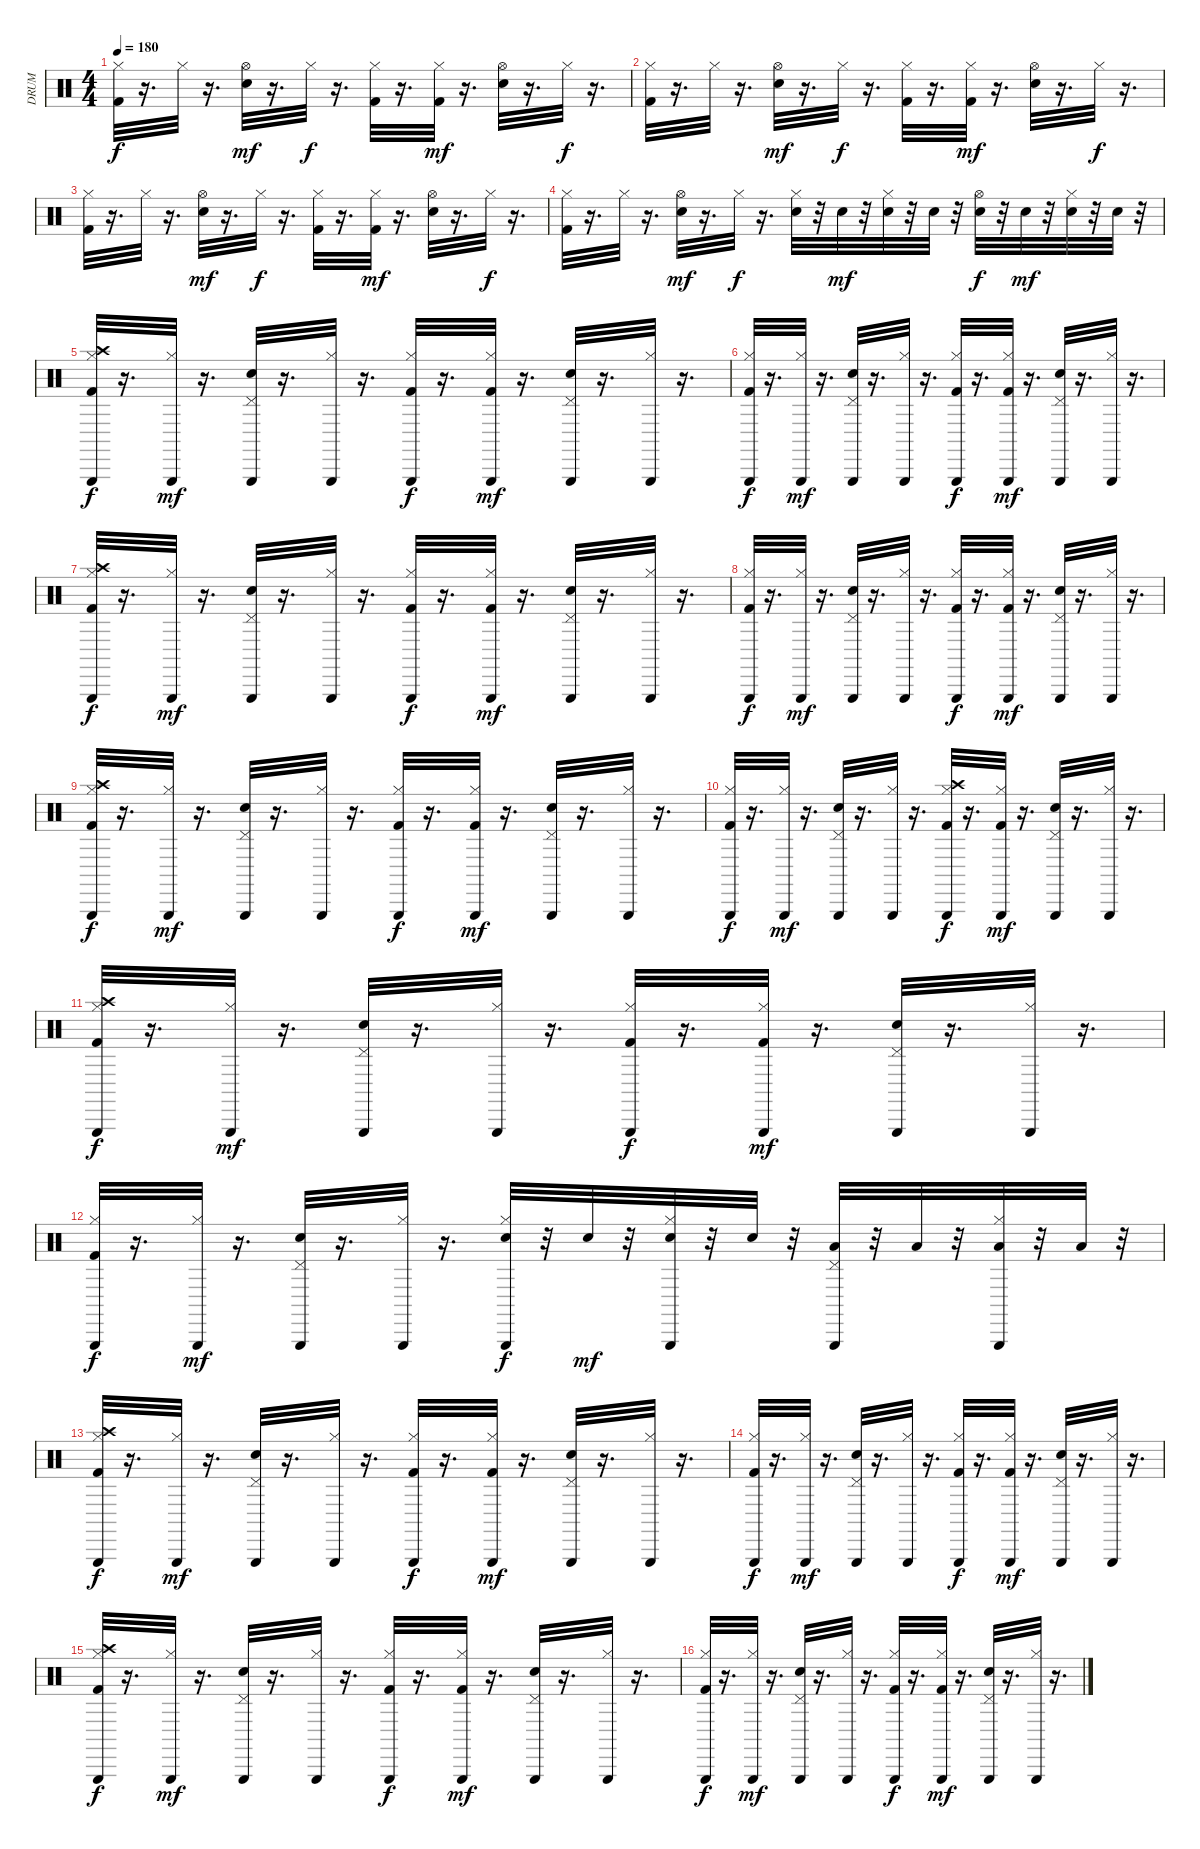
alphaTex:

\track ("DRUM" "DRUM") {instrument percussion}
\staff {score}
\articulation defaults
\ts (4 4)
\tempo 180
\clef neutral
\ks c
("Hi-Hat (closed)" "Kick (hit) 2").32{dy f} r.16{d} "Hi-Hat (closed)".32 r.16{d} ("Snare (hit) 2" "Hi-Hat (open)").32{dy mf} r.16{d} "Hi-Hat (closed)".32{dy f} r.16{d} ("Hi-Hat (closed)" "Kick (hit) 2").32 r.16{d} ("Hi-Hat (closed)" "Kick (hit) 2").32{dy mf} r.16{d} ("Snare (hit) 2" "Hi-Hat (open)").32 r.16{d} "Hi-Hat (closed)".32{dy f} r.16{d} |
("Hi-Hat (closed)" "Kick (hit) 2").32 r.16{d} "Hi-Hat (closed)".32 r.16{d} ("Snare (hit) 2" "Hi-Hat (open)").32{dy mf} r.16{d} "Hi-Hat (closed)".32{dy f} r.16{d} ("Hi-Hat (closed)" "Kick (hit) 2").32 r.16{d} ("Hi-Hat (closed)" "Kick (hit) 2").32{dy mf} r.16{d} ("Hi-Hat (open)" "Snare (hit) 2").32 r.16{d} "Hi-Hat (closed)".32{dy f} r.16{d} |
("Hi-Hat (closed)" "Kick (hit) 2").32 r.16{d} "Hi-Hat (closed)".32 r.16{d} ("Hi-Hat (open)" "Snare (hit) 2").32{dy mf} r.16{d} "Hi-Hat (closed)".32{dy f} r.16{d} ("Kick (hit) 2" "Hi-Hat (closed)").32 r.16{d} ("Kick (hit) 2" "Hi-Hat (closed)").32{dy mf} r.16{d} ("Snare (hit) 2" "Hi-Hat (open)").32 r.16{d} "Hi-Hat (closed)".32{dy f} r.16{d} |
("Kick (hit) 2" "Hi-Hat (closed)").32 r.16{d} "Hi-Hat (closed)".32 r.16{d} ("Hi-Hat (open)" "Snare (hit) 2").32{dy mf} r.16{d} "Hi-Hat (closed)".32{dy f} r.16{d} ("Electric Snare (hit)" "Hi-Hat (closed)").32 r.32 "Electric Snare (hit)".32{dy mf} r.32 ("Electric Snare (hit)" "Hi-Hat (closed)").32 r.32 "Electric Snare (hit)".32 r.32 ("Hi-Hat (open)" "Snare (hit) 2").32{dy f} r.32 "Snare (hit) 2".32{dy mf} r.32 ("Hi-Hat (closed)" "Snare (hit) 2").32 r.32 "Snare (hit) 2".32 r.32 |
("Kick (hit) 2" "Crash high (hit)" "Hi-Hat (closed)" "Triangle (hit)").32{dy f} r.16{d} ("Triangle (hit)" "Hi-Hat (closed)").32{dy mf} r.16{d} ("Triangle (hit)" "Snare (hit) 2" "Pedal Hi-Hat (hit)").32 r.16{d} ("Triangle (hit)" "Hi-Hat (closed)").32 r.16{d} ("Triangle (hit)" "Hi-Hat (closed)" "Kick (hit) 2").32{dy f} r.16{d} ("Triangle (hit)" "Kick (hit) 2" "Hi-Hat (closed)").32{dy mf} r.16{d} ("Snare (hit) 2" "Triangle (hit)" "Pedal Hi-Hat (hit)").32 r.16{d} ("Hi-Hat (closed)" "Triangle (hit)").32 r.16{d} |
("Hi-Hat (closed)" "Kick (hit) 2" "Triangle (hit)").32{dy f} r.16{d} ("Hi-Hat (closed)" "Triangle (hit)").32{dy mf} r.16{d} ("Pedal Hi-Hat (hit)" "Snare (hit) 2" "Triangle (hit)").32 r.16{d} ("Hi-Hat (closed)" "Triangle (hit)").32 r.16{d} ("Hi-Hat (closed)" "Kick (hit) 2" "Triangle (hit)").32{dy f} r.16{d} ("Hi-Hat (closed)" "Triangle (hit)" "Kick (hit) 2").32{dy mf} r.16{d} ("Pedal Hi-Hat (hit)" "Triangle (hit)" "Snare (hit) 2").32 r.16{d} ("Hi-Hat (closed)" "Triangle (hit)").32 r.16{d} |
("Kick (hit) 2" "Triangle (hit)" "Hi-Hat (closed)" "Crash high (hit)").32{dy f} r.16{d} ("Triangle (hit)" "Hi-Hat (closed)").32{dy mf} r.16{d} ("Pedal Hi-Hat (hit)" "Triangle (hit)" "Snare (hit) 2").32 r.16{d} ("Triangle (hit)" "Hi-Hat (closed)").32 r.16{d} ("Hi-Hat (closed)" "Kick (hit) 2" "Triangle (hit)").32{dy f} r.16{d} ("Hi-Hat (closed)" "Kick (hit) 2" "Triangle (hit)").32{dy mf} r.16{d} ("Snare (hit) 2" "Triangle (hit)" "Pedal Hi-Hat (hit)").32 r.16{d} ("Triangle (hit)" "Hi-Hat (closed)").32 r.16{d} |
("Hi-Hat (closed)" "Triangle (hit)" "Kick (hit) 2").32{dy f} r.16{d} ("Triangle (hit)" "Hi-Hat (closed)").32{dy mf} r.16{d} ("Triangle (hit)" "Snare (hit) 2" "Pedal Hi-Hat (hit)").32 r.16{d} ("Hi-Hat (closed)" "Triangle (hit)").32 r.16{d} ("Kick (hit) 2" "Hi-Hat (closed)" "Triangle (hit)").32{dy f} r.16{d} ("Hi-Hat (closed)" "Triangle (hit)" "Kick (hit) 2").32{dy mf} r.16{d} ("Triangle (hit)" "Pedal Hi-Hat (hit)" "Snare (hit) 2").32 r.16{d} ("Hi-Hat (closed)" "Triangle (hit)").32 r.16{d} |
("Hi-Hat (closed)" "Crash high (hit)" "Kick (hit) 2" "Triangle (hit)").32{dy f} r.16{d} ("Triangle (hit)" "Hi-Hat (closed)").32{dy mf} r.16{d} ("Triangle (hit)" "Pedal Hi-Hat (hit)" "Snare (hit) 2").32 r.16{d} ("Triangle (hit)" "Hi-Hat (closed)").32 r.16{d} ("Kick (hit) 2" "Triangle (hit)" "Hi-Hat (closed)").32{dy f} r.16{d} ("Kick (hit) 2" "Hi-Hat (closed)" "Triangle (hit)").32{dy mf} r.16{d} ("Pedal Hi-Hat (hit)" "Snare (hit) 2" "Triangle (hit)").32 r.16{d} ("Hi-Hat (closed)" "Triangle (hit)").32 r.16{d} |
("Kick (hit) 2" "Triangle (hit)" "Hi-Hat (closed)").32{dy f} r.16{d} ("Hi-Hat (closed)" "Triangle (hit)").32{dy mf} r.16{d} ("Pedal Hi-Hat (hit)" "Snare (hit) 2" "Triangle (hit)").32 r.16{d} ("Hi-Hat (closed)" "Triangle (hit)").32 r.16{d} ("Kick (hit) 2" "Crash high (hit)" "Triangle (hit)" "Hi-Hat (closed)").32{dy f} r.16{d} ("Triangle (hit)" "Hi-Hat (closed)" "Kick (hit) 2").32{dy mf} r.16{d} ("Triangle (hit)" "Pedal Hi-Hat (hit)" "Snare (hit) 2").32 r.16{d} ("Triangle (hit)" "Hi-Hat (closed)").32 r.16{d} |
("Kick (hit) 2" "Hi-Hat (closed)" "Crash high (hit)" "Triangle (hit)").32{dy f} r.16{d} ("Hi-Hat (closed)" "Triangle (hit)").32{dy mf} r.16{d} ("Snare (hit) 2" "Pedal Hi-Hat (hit)" "Triangle (hit)").32 r.16{d} ("Hi-Hat (closed)" "Triangle (hit)").32 r.16{d} ("Hi-Hat (closed)" "Triangle (hit)" "Kick (hit) 2").32{dy f} r.16{d} ("Triangle (hit)" "Hi-Hat (closed)" "Kick (hit) 2").32{dy mf} r.16{d} ("Pedal Hi-Hat (hit)" "Triangle (hit)" "Snare (hit) 2").32 r.16{d} ("Triangle (hit)" "Hi-Hat (closed)").32 r.16{d} |
("Kick (hit) 2" "Triangle (hit)" "Hi-Hat (closed)").32{dy f} r.16{d} ("Triangle (hit)" "Hi-Hat (closed)").32{dy mf} r.16{d} ("Pedal Hi-Hat (hit)" "Snare (hit) 2" "Triangle (hit)").32 r.16{d} ("Triangle (hit)" "Hi-Hat (closed)").32 r.16{d} ("Triangle (hit)" "Hi-Hat (closed)" "Snare (hit) 2").32{dy f} r.32 "Snare (hit) 2".32{dy mf} r.32 ("Snare (hit) 2" "Triangle (hit)" "Hi-Hat (closed)").32 r.32 "Snare (hit) 2".32 r.32 ("Triangle (hit)" "Low Floor Tom (hit)" "Pedal Hi-Hat (hit)").32 r.32 "Low Floor Tom (hit)".32 r.32 ("Triangle (hit)" "Low Floor Tom (hit)" "Hi-Hat (closed)").32 r.32 "Low Floor Tom (hit)".32 r.32 |
("Triangle (hit)" "Hi-Hat (closed)" "Kick (hit) 2" "Crash high (hit)").32{dy f} r.16{d} ("Hi-Hat (closed)" "Triangle (hit)").32{dy mf} r.16{d} ("Pedal Hi-Hat (hit)" "Snare (hit) 2" "Triangle (hit)").32 r.16{d} ("Hi-Hat (closed)" "Triangle (hit)").32 r.16{d} ("Hi-Hat (closed)" "Kick (hit) 2" "Triangle (hit)").32{dy f} r.16{d} ("Kick (hit) 2" "Hi-Hat (closed)" "Triangle (hit)").32{dy mf} r.16{d} ("Snare (hit) 2" "Pedal Hi-Hat (hit)" "Triangle (hit)").32 r.16{d} ("Triangle (hit)" "Hi-Hat (closed)").32 r.16{d} |
("Triangle (hit)" "Hi-Hat (closed)" "Kick (hit) 2").32{dy f} r.16{d} ("Hi-Hat (closed)" "Triangle (hit)").32{dy mf} r.16{d} ("Pedal Hi-Hat (hit)" "Triangle (hit)" "Snare (hit) 2").32 r.16{d} ("Triangle (hit)" "Hi-Hat (closed)").32 r.16{d} ("Kick (hit) 2" "Hi-Hat (closed)" "Triangle (hit)").32{dy f} r.16{d} ("Triangle (hit)" "Hi-Hat (closed)" "Kick (hit) 2").32{dy mf} r.16{d} ("Snare (hit) 2" "Triangle (hit)" "Pedal Hi-Hat (hit)").32 r.16{d} ("Hi-Hat (closed)" "Triangle (hit)").32 r.16{d} |
("Crash high (hit)" "Triangle (hit)" "Kick (hit) 2" "Hi-Hat (closed)").32{dy f} r.16{d} ("Triangle (hit)" "Hi-Hat (closed)").32{dy mf} r.16{d} ("Pedal Hi-Hat (hit)" "Triangle (hit)" "Snare (hit) 2").32 r.16{d} ("Triangle (hit)" "Hi-Hat (closed)").32 r.16{d} ("Hi-Hat (closed)" "Triangle (hit)" "Kick (hit) 2").32{dy f} r.16{d} ("Kick (hit) 2" "Triangle (hit)" "Hi-Hat (closed)").32{dy mf} r.16{d} ("Snare (hit) 2" "Pedal Hi-Hat (hit)" "Triangle (hit)").32 r.16{d} ("Triangle (hit)" "Hi-Hat (closed)").32 r.16{d} |
("Kick (hit) 2" "Triangle (hit)" "Hi-Hat (closed)").32{dy f} r.16{d} ("Triangle (hit)" "Hi-Hat (closed)").32{dy mf} r.16{d} ("Pedal Hi-Hat (hit)" "Triangle (hit)" "Snare (hit) 2").32 r.16{d} ("Triangle (hit)" "Hi-Hat (closed)").32 r.16{d} ("Kick (hit) 2" "Hi-Hat (closed)" "Triangle (hit)").32{dy f} r.16{d} ("Kick (hit) 2" "Triangle (hit)" "Hi-Hat (closed)").32{dy mf} r.16{d} ("Pedal Hi-Hat (hit)" "Snare (hit) 2" "Triangle (hit)").32 r.16{d} ("Hi-Hat (closed)" "Triangle (hit)").32 r.16{d}
